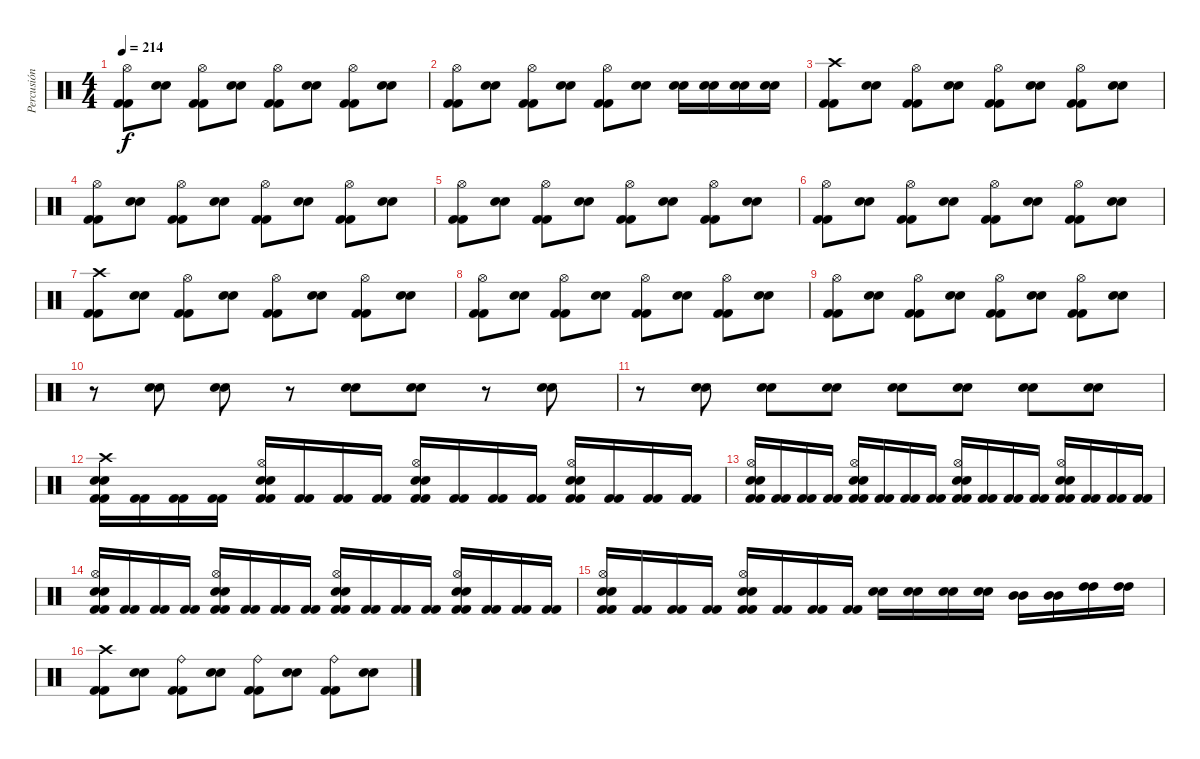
\track ("Percusión" "Percusión") {instrument percussion}
\staff {score}
\articulation defaults
\ts (4 4)
\tempo 214
\clef neutral
\ks c
("Kick (hit) 2" "Kick (hit) 2" "Hi-Hat (open)").8{dy f} ("Electric Snare (hit)" "Electric Snare (hit)").8 ("Kick (hit) 2" "Kick (hit) 2" "Hi-Hat (open)").8 ("Electric Snare (hit)" "Electric Snare (hit)").8 ("Kick (hit) 2" "Kick (hit) 2" "Hi-Hat (open)").8 ("Electric Snare (hit)" "Electric Snare (hit)").8 ("Kick (hit) 2" "Kick (hit) 2" "Hi-Hat (open)").8 ("Electric Snare (hit)" "Electric Snare (hit)").8 |
("Kick (hit) 2" "Kick (hit) 2" "Hi-Hat (open)").8 ("Electric Snare (hit)" "Electric Snare (hit)").8 ("Kick (hit) 2" "Kick (hit) 2" "Hi-Hat (open)").8 ("Electric Snare (hit)" "Electric Snare (hit)").8 ("Kick (hit) 2" "Kick (hit) 2" "Hi-Hat (open)").8 ("Electric Snare (hit)" "Electric Snare (hit)").8 ("Electric Snare (hit)" "Electric Snare (hit)").16 ("Electric Snare (hit)" "Electric Snare (hit)").16 ("Electric Snare (hit)" "Electric Snare (hit)").16 ("Electric Snare (hit)" "Electric Snare (hit)").16 |
("Kick (hit) 2" "Kick (hit) 2" "Crash high (hit)").8 ("Electric Snare (hit)" "Electric Snare (hit)").8 ("Kick (hit) 2" "Kick (hit) 2" "Hi-Hat (open)").8 ("Electric Snare (hit)" "Electric Snare (hit)").8 ("Kick (hit) 2" "Kick (hit) 2" "Hi-Hat (open)").8 ("Electric Snare (hit)" "Electric Snare (hit)").8 ("Kick (hit) 2" "Kick (hit) 2" "Hi-Hat (open)").8 ("Electric Snare (hit)" "Electric Snare (hit)").8 |
("Kick (hit) 2" "Kick (hit) 2" "Hi-Hat (open)").8 ("Electric Snare (hit)" "Electric Snare (hit)").8 ("Kick (hit) 2" "Kick (hit) 2" "Hi-Hat (open)").8 ("Electric Snare (hit)" "Electric Snare (hit)").8 ("Kick (hit) 2" "Kick (hit) 2" "Hi-Hat (open)").8 ("Electric Snare (hit)" "Electric Snare (hit)").8 ("Kick (hit) 2" "Kick (hit) 2" "Hi-Hat (open)").8 ("Electric Snare (hit)" "Electric Snare (hit)").8 |
("Kick (hit) 2" "Kick (hit) 2" "Hi-Hat (open)").8 ("Electric Snare (hit)" "Electric Snare (hit)").8 ("Kick (hit) 2" "Kick (hit) 2" "Hi-Hat (open)").8 ("Electric Snare (hit)" "Electric Snare (hit)").8 ("Kick (hit) 2" "Kick (hit) 2" "Hi-Hat (open)").8 ("Electric Snare (hit)" "Electric Snare (hit)").8 ("Kick (hit) 2" "Kick (hit) 2" "Hi-Hat (open)").8 ("Electric Snare (hit)" "Electric Snare (hit)").8 |
("Kick (hit) 2" "Kick (hit) 2" "Hi-Hat (open)").8 ("Electric Snare (hit)" "Electric Snare (hit)").8 ("Kick (hit) 2" "Kick (hit) 2" "Hi-Hat (open)").8 ("Electric Snare (hit)" "Electric Snare (hit)").8 ("Kick (hit) 2" "Kick (hit) 2" "Hi-Hat (open)").8 ("Electric Snare (hit)" "Electric Snare (hit)").8 ("Kick (hit) 2" "Kick (hit) 2" "Hi-Hat (open)").8 ("Electric Snare (hit)" "Electric Snare (hit)").8 |
("Kick (hit) 2" "Kick (hit) 2" "Crash high (hit)").8 ("Electric Snare (hit)" "Electric Snare (hit)").8 ("Kick (hit) 2" "Kick (hit) 2" "Hi-Hat (open)").8 ("Electric Snare (hit)" "Electric Snare (hit)").8 ("Kick (hit) 2" "Kick (hit) 2" "Hi-Hat (open)").8 ("Electric Snare (hit)" "Electric Snare (hit)").8 ("Kick (hit) 2" "Kick (hit) 2" "Hi-Hat (open)").8 ("Electric Snare (hit)" "Electric Snare (hit)").8 |
("Kick (hit) 2" "Kick (hit) 2" "Hi-Hat (open)").8 ("Electric Snare (hit)" "Electric Snare (hit)").8 ("Kick (hit) 2" "Kick (hit) 2" "Hi-Hat (open)").8 ("Electric Snare (hit)" "Electric Snare (hit)").8 ("Kick (hit) 2" "Kick (hit) 2" "Hi-Hat (open)").8 ("Electric Snare (hit)" "Electric Snare (hit)").8 ("Kick (hit) 2" "Kick (hit) 2" "Hi-Hat (open)").8 ("Electric Snare (hit)" "Electric Snare (hit)").8 |
("Kick (hit) 2" "Kick (hit) 2" "Hi-Hat (open)").8 ("Electric Snare (hit)" "Electric Snare (hit)").8 ("Kick (hit) 2" "Kick (hit) 2" "Hi-Hat (open)").8 ("Electric Snare (hit)" "Electric Snare (hit)").8 ("Kick (hit) 2" "Kick (hit) 2" "Hi-Hat (open)").8 ("Electric Snare (hit)" "Electric Snare (hit)").8 ("Kick (hit) 2" "Kick (hit) 2" "Hi-Hat (open)").8 ("Electric Snare (hit)" "Electric Snare (hit)").8 |
r.8 ("Electric Snare (hit)" "Electric Snare (hit)").8 ("Electric Snare (hit)" "Electric Snare (hit)").8 r.8 ("Electric Snare (hit)" "Electric Snare (hit)").8 ("Electric Snare (hit)" "Electric Snare (hit)").8 r.8 ("Electric Snare (hit)" "Electric Snare (hit)").8 |
r.8 ("Electric Snare (hit)" "Electric Snare (hit)").8 ("Electric Snare (hit)" "Electric Snare (hit)").8 ("Electric Snare (hit)" "Electric Snare (hit)").8 ("Electric Snare (hit)" "Electric Snare (hit)").8 ("Electric Snare (hit)" "Electric Snare (hit)").8 ("Electric Snare (hit)" "Electric Snare (hit)").8 ("Electric Snare (hit)" "Electric Snare (hit)").8 |
("Kick (hit) 2" "Kick (hit) 2" "Electric Snare (hit)" "Electric Snare (hit)" "Crash high (hit)").16 ("Kick (hit) 2" "Kick (hit) 2").16 ("Kick (hit) 2" "Kick (hit) 2").16 ("Kick (hit) 2" "Kick (hit) 2").16 ("Kick (hit) 2" "Kick (hit) 2" "Electric Snare (hit)" "Electric Snare (hit)" "Hi-Hat (open)").16 ("Kick (hit) 2" "Kick (hit) 2").16 ("Kick (hit) 2" "Kick (hit) 2").16 ("Kick (hit) 2" "Kick (hit) 2").16 ("Kick (hit) 2" "Kick (hit) 2" "Electric Snare (hit)" "Electric Snare (hit)" "Hi-Hat (open)").16 ("Kick (hit) 2" "Kick (hit) 2").16 ("Kick (hit) 2" "Kick (hit) 2").16 ("Kick (hit) 2" "Kick (hit) 2").16 ("Kick (hit) 2" "Kick (hit) 2" "Electric Snare (hit)" "Electric Snare (hit)" "Hi-Hat (open)").16 ("Kick (hit) 2" "Kick (hit) 2").16 ("Kick (hit) 2" "Kick (hit) 2").16 ("Kick (hit) 2" "Kick (hit) 2").16 |
("Kick (hit) 2" "Kick (hit) 2" "Electric Snare (hit)" "Electric Snare (hit)" "Hi-Hat (open)").16 ("Kick (hit) 2" "Kick (hit) 2").16 ("Kick (hit) 2" "Kick (hit) 2").16 ("Kick (hit) 2" "Kick (hit) 2").16 ("Kick (hit) 2" "Kick (hit) 2" "Electric Snare (hit)" "Electric Snare (hit)" "Hi-Hat (open)").16 ("Kick (hit) 2" "Kick (hit) 2").16 ("Kick (hit) 2" "Kick (hit) 2").16 ("Kick (hit) 2" "Kick (hit) 2").16 ("Kick (hit) 2" "Kick (hit) 2" "Electric Snare (hit)" "Electric Snare (hit)" "Hi-Hat (open)").16 ("Kick (hit) 2" "Kick (hit) 2").16 ("Kick (hit) 2" "Kick (hit) 2").16 ("Kick (hit) 2" "Kick (hit) 2").16 ("Kick (hit) 2" "Kick (hit) 2" "Electric Snare (hit)" "Electric Snare (hit)" "Hi-Hat (open)").16 ("Kick (hit) 2" "Kick (hit) 2").16 ("Kick (hit) 2" "Kick (hit) 2").16 ("Kick (hit) 2" "Kick (hit) 2").16 |
("Kick (hit) 2" "Kick (hit) 2" "Electric Snare (hit)" "Electric Snare (hit)" "Hi-Hat (open)").16 ("Kick (hit) 2" "Kick (hit) 2").16 ("Kick (hit) 2" "Kick (hit) 2").16 ("Kick (hit) 2" "Kick (hit) 2").16 ("Kick (hit) 2" "Kick (hit) 2" "Electric Snare (hit)" "Electric Snare (hit)" "Hi-Hat (open)").16 ("Kick (hit) 2" "Kick (hit) 2").16 ("Kick (hit) 2" "Kick (hit) 2").16 ("Kick (hit) 2" "Kick (hit) 2").16 ("Kick (hit) 2" "Kick (hit) 2" "Electric Snare (hit)" "Electric Snare (hit)" "Hi-Hat (open)").16 ("Kick (hit) 2" "Kick (hit) 2").16 ("Kick (hit) 2" "Kick (hit) 2").16 ("Kick (hit) 2" "Kick (hit) 2").16 ("Kick (hit) 2" "Kick (hit) 2" "Electric Snare (hit)" "Electric Snare (hit)" "Hi-Hat (open)").16 ("Kick (hit) 2" "Kick (hit) 2").16 ("Kick (hit) 2" "Kick (hit) 2").16 ("Kick (hit) 2" "Kick (hit) 2").16 |
("Kick (hit) 2" "Kick (hit) 2" "Electric Snare (hit)" "Electric Snare (hit)" "Hi-Hat (open)").16 ("Kick (hit) 2" "Kick (hit) 2").16 ("Kick (hit) 2" "Kick (hit) 2").16 ("Kick (hit) 2" "Kick (hit) 2").16 ("Kick (hit) 2" "Kick (hit) 2" "Electric Snare (hit)" "Electric Snare (hit)" "Hi-Hat (open)").16 ("Kick (hit) 2" "Kick (hit) 2").16 ("Kick (hit) 2" "Kick (hit) 2").16 ("Kick (hit) 2" "Kick (hit) 2").16 ("Electric Snare (hit)" "Electric Snare (hit)").16 ("Electric Snare (hit)" "Electric Snare (hit)").16 ("Electric Snare (hit)" "Electric Snare (hit)").16 ("Electric Snare (hit)" "Electric Snare (hit)").16 ("Mid Tom (hit)" "Mid Tom (hit)").16 ("Mid Tom (hit)" "Mid Tom (hit)").16 ("High Tom (hit)" "High Tom (hit)").16 ("High Tom (hit)" "High Tom (hit)").16 |
("Kick (hit) 2" "Kick (hit) 2" "Crash high (hit)").8 ("Electric Snare (hit)" "Electric Snare (hit)").8 ("Kick (hit) 2" "Kick (hit) 2" "Ride (bell)").8 ("Electric Snare (hit)" "Electric Snare (hit)").8 ("Kick (hit) 2" "Kick (hit) 2" "Ride (bell)").8 ("Electric Snare (hit)" "Electric Snare (hit)").8 ("Kick (hit) 2" "Kick (hit) 2" "Ride (bell)").8 ("Electric Snare (hit)" "Electric Snare (hit)").8
